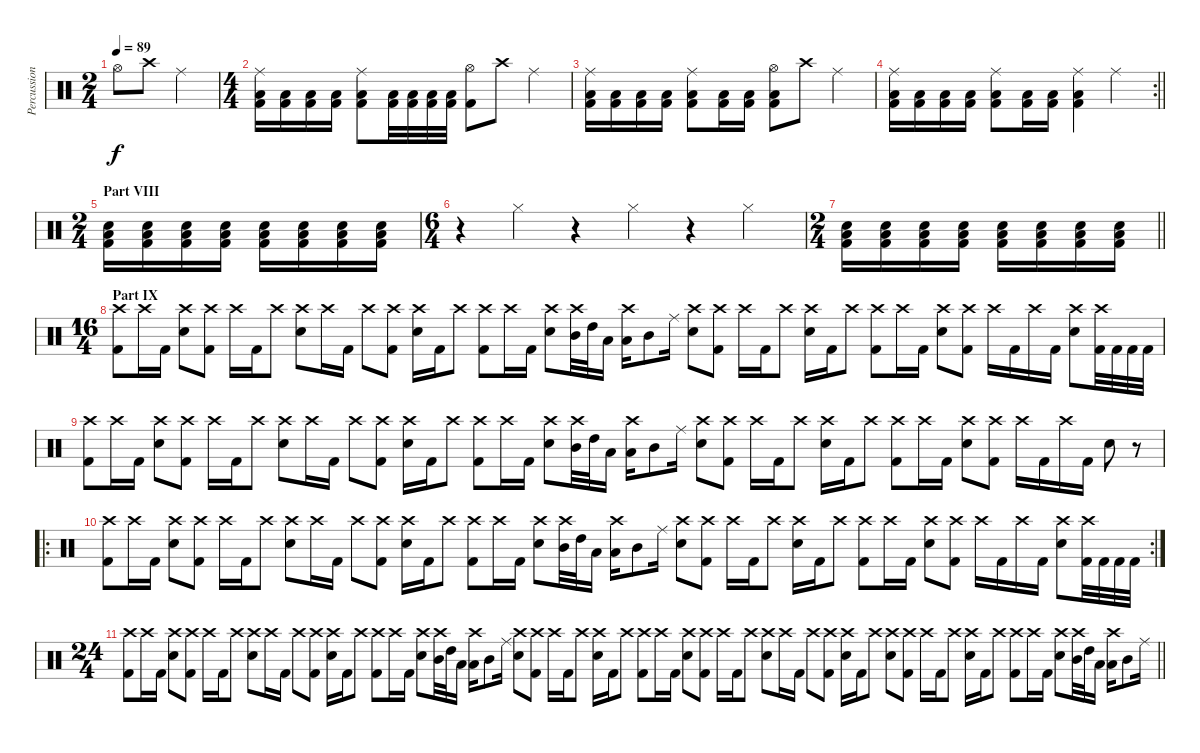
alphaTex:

\track ("Percussions" "Percussion") {instrument percussion}
\staff {score}
\articulation defaults
\ts (2 4)
\tempo 89
\clef neutral
\ks c "Hi-Hat (open)".8{dy f} "Crash high (hit)".8 "Ride (middle)".4
|
\ts (4 4)
("Ride (middle)" "Low Tom (hit)" "Kick (hit) 2").16 ("Low Tom (hit)" "Kick (hit) 2").16 ("Low Tom (hit)" "Kick (hit) 2").16 ("Low Tom (hit)" "Kick (hit) 2").16 ("Ride (middle)" "Low Tom (hit)" "Kick (hit) 2").8 ("Low Tom (hit)" "Kick (hit) 2").32 ("Low Tom (hit)" "Kick (hit) 2").32 ("Low Tom (hit)" "Kick (hit) 2").32 ("Low Tom (hit)" "Kick (hit) 2").32 ("Hi-Hat (open)" "Kick (hit) 2").8 "Crash high (hit)".8 "Ride (middle)".4 |
("Ride (middle)" "Low Tom (hit)" "Kick (hit) 2").16 ("Low Tom (hit)" "Kick (hit) 2").16 ("Low Tom (hit)" "Kick (hit) 2").16 ("Low Tom (hit)" "Kick (hit) 2").16 ("Ride (middle)" "Low Tom (hit)" "Kick (hit) 2").8 ("Low Tom (hit)" "Kick (hit) 2").16 ("Low Tom (hit)" "Kick (hit) 2").16 ("Hi-Hat (open)" "Low Tom (hit)" "Kick (hit) 2").8 "Crash high (hit)".8 "Ride (middle)".4 |
\rc 2
\barLineRight lightlight
("Ride (middle)" "Low Tom (hit)" "Kick (hit) 2").16 ("Low Tom (hit)" "Kick (hit) 2").16 ("Low Tom (hit)" "Kick (hit) 2").16 ("Low Tom (hit)" "Kick (hit) 2").16 ("Ride (middle)" "Low Tom (hit)" "Kick (hit) 2").8 ("Low Tom (hit)" "Kick (hit) 2").16 ("Low Tom (hit)" "Kick (hit) 2").16 ("Ride (middle)" "Low Tom (hit)" "Kick (hit) 2").4 "Ride (middle)".4 |
\ts (2 4)
\section ("" "Part VIII")
("Low Tom (hit)" "Snare (hit) 2" "Kick (hit) 2").16 ("Low Tom (hit)" "Snare (hit) 2" "Kick (hit) 2").16 ("Low Tom (hit)" "Snare (hit) 2" "Kick (hit) 2").16 ("Low Tom (hit)" "Snare (hit) 2" "Kick (hit) 2").16 ("Low Tom (hit)" "Snare (hit) 2" "Kick (hit) 2").16 ("Low Tom (hit)" "Snare (hit) 2" "Kick (hit) 2").16 ("Low Tom (hit)" "Snare (hit) 2" "Kick (hit) 2").16 ("Low Tom (hit)" "Snare (hit) 2" "Kick (hit) 2").16 |
\ts (6 4)
r.4 "Hi-Hat (closed)".4 r.4 "Hi-Hat (closed)".4 r.4 "Hi-Hat (closed)".4 |
\ts (2 4)
\barLineRight lightlight
("Low Tom (hit)" "Snare (hit) 2" "Kick (hit) 2").16 ("Low Tom (hit)" "Snare (hit) 2" "Kick (hit) 2").16 ("Low Tom (hit)" "Snare (hit) 2" "Kick (hit) 2").16 ("Low Tom (hit)" "Snare (hit) 2" "Kick (hit) 2").16 ("Low Tom (hit)" "Snare (hit) 2" "Kick (hit) 2").16 ("Low Tom (hit)" "Snare (hit) 2" "Kick (hit) 2").16 ("Low Tom (hit)" "Snare (hit) 2" "Kick (hit) 2").16 ("Low Tom (hit)" "Snare (hit) 2" "Kick (hit) 2").16 |
\ts (16 4)
\section ("" "Part IX")
("Crash high (hit)" "Kick (hit) 2").8 "Crash high (hit)".16 "Kick (hit) 2".16 ("Crash high (hit)" "Snare (hit) 2").8 ("Crash high (hit)" "Kick (hit) 2").8 "Crash high (hit)".16 "Kick (hit) 2".16 "Crash high (hit)".8 ("Crash high (hit)" "Snare (hit) 2").8 "Crash high (hit)".16 "Kick (hit) 2".16 "Crash high (hit)".8 ("Crash high (hit)" "Kick (hit) 2").8 ("Crash high (hit)" "Snare (hit) 2").16 "Kick (hit) 2".16 "Crash high (hit)".8 ("Crash high (hit)" "Kick (hit) 2").8 "Crash high (hit)".16 "Kick (hit) 2".16 ("Crash high (hit)" "Snare (hit) 2").8 ("Crash high (hit)" "Mid Tom (hit)").32 "High Tom (hit)".32 "Low Tom (hit)".16 ("Crash high (hit)" "Low Tom (hit)").16 "Mid Tom (hit)".8 "Ride (middle)".16 ("Crash high (hit)" "Snare (hit) 2").8 ("Crash high (hit)" "Kick (hit) 2").8 "Crash high (hit)".16 "Kick (hit) 2".16 "Crash high (hit)".8 ("Crash high (hit)" "Snare (hit) 2").16 "Kick (hit) 2".16 "Crash high (hit)".8 ("Crash high (hit)" "Kick (hit) 2").8 "Crash high (hit)".16 "Kick (hit) 2".16 ("Crash high (hit)" "Snare (hit) 2").8 ("Crash high (hit)" "Kick (hit) 2").8 "Crash high (hit)".16 "Kick (hit) 2".16 "Crash high (hit)".16 "Kick (hit) 2".16 ("Crash high (hit)" "Snare (hit) 2").8 ("Crash high (hit)" "Kick (hit) 2").32 "Kick (hit) 2".32 "Kick (hit) 2".32 "Kick (hit) 2".32 |
("Crash high (hit)" "Kick (hit) 2").8 "Crash high (hit)".16 "Kick (hit) 2".16 ("Crash high (hit)" "Snare (hit) 2").8 ("Crash high (hit)" "Kick (hit) 2").8 "Crash high (hit)".16 "Kick (hit) 2".16 "Crash high (hit)".8 ("Crash high (hit)" "Snare (hit) 2").8 "Crash high (hit)".16 "Kick (hit) 2".16 "Crash high (hit)".8 ("Crash high (hit)" "Kick (hit) 2").8 ("Crash high (hit)" "Snare (hit) 2").16 "Kick (hit) 2".16 "Crash high (hit)".8 ("Crash high (hit)" "Kick (hit) 2").8 "Crash high (hit)".16 "Kick (hit) 2".16 ("Crash high (hit)" "Snare (hit) 2").8 ("Crash high (hit)" "Mid Tom (hit)").32 "High Tom (hit)".32 "Low Tom (hit)".16 ("Crash high (hit)" "Low Tom (hit)").16 "Mid Tom (hit)".8 "Ride (middle)".16 ("Crash high (hit)" "Snare (hit) 2").8 ("Crash high (hit)" "Kick (hit) 2").8 "Crash high (hit)".16 "Kick (hit) 2".16 "Crash high (hit)".8 ("Crash high (hit)" "Snare (hit) 2").16 "Kick (hit) 2".16 "Crash high (hit)".8 ("Crash high (hit)" "Kick (hit) 2").8 "Crash high (hit)".16 "Kick (hit) 2".16 ("Crash high (hit)" "Snare (hit) 2").8 ("Crash high (hit)" "Kick (hit) 2").8 "Crash high (hit)".16 "Kick (hit) 2".16 "Crash high (hit)".16 "Kick (hit) 2".16 "Snare (hit) 2".8 r.8 |
\ro
\rc 2
("Crash high (hit)" "Kick (hit) 2").8 "Crash high (hit)".16 "Kick (hit) 2".16 ("Crash high (hit)" "Snare (hit) 2").8 ("Crash high (hit)" "Kick (hit) 2").8 "Crash high (hit)".16 "Kick (hit) 2".16 "Crash high (hit)".8 ("Crash high (hit)" "Snare (hit) 2").8 "Crash high (hit)".16 "Kick (hit) 2".16 "Crash high (hit)".8 ("Crash high (hit)" "Kick (hit) 2").8 ("Crash high (hit)" "Snare (hit) 2").16 "Kick (hit) 2".16 "Crash high (hit)".8 ("Crash high (hit)" "Kick (hit) 2").8 "Crash high (hit)".16 "Kick (hit) 2".16 ("Crash high (hit)" "Snare (hit) 2").8 ("Crash high (hit)" "Mid Tom (hit)").32 "High Tom (hit)".32 "Low Tom (hit)".16 ("Crash high (hit)" "Low Tom (hit)").16 "Mid Tom (hit)".8 "Ride (middle)".16 ("Crash high (hit)" "Snare (hit) 2").8 ("Crash high (hit)" "Kick (hit) 2").8 "Crash high (hit)".16 "Kick (hit) 2".16 "Crash high (hit)".8 ("Crash high (hit)" "Snare (hit) 2").16 "Kick (hit) 2".16 "Crash high (hit)".8 ("Crash high (hit)" "Kick (hit) 2").8 "Crash high (hit)".16 "Kick (hit) 2".16 ("Crash high (hit)" "Snare (hit) 2").8 ("Crash high (hit)" "Kick (hit) 2").8 "Crash high (hit)".16 "Kick (hit) 2".16 "Crash high (hit)".16 "Kick (hit) 2".16 ("Crash high (hit)" "Snare (hit) 2").8 ("Crash high (hit)" "Kick (hit) 2").32 "Kick (hit) 2".32 "Kick (hit) 2".32 "Kick (hit) 2".32 |
\ts (24 4)
\barLineRight lightlight
("Crash high (hit)" "Kick (hit) 2").8 "Crash high (hit)".16 "Kick (hit) 2".16 ("Crash high (hit)" "Snare (hit) 2").8 ("Crash high (hit)" "Kick (hit) 2").8 "Crash high (hit)".16 "Kick (hit) 2".16 "Crash high (hit)".8 ("Crash high (hit)" "Snare (hit) 2").8 "Crash high (hit)".16 "Kick (hit) 2".16 "Crash high (hit)".8 ("Crash high (hit)" "Kick (hit) 2").8 ("Crash high (hit)" "Snare (hit) 2").16 "Kick (hit) 2".16 "Crash high (hit)".8 ("Crash high (hit)" "Kick (hit) 2").8 "Crash high (hit)".16 "Kick (hit) 2".16 ("Crash high (hit)" "Snare (hit) 2").8 ("Crash high (hit)" "Mid Tom (hit)").32 "High Tom (hit)".32 "Low Tom (hit)".16 ("Crash high (hit)" "Low Tom (hit)").16 "Mid Tom (hit)".8 "Ride (middle)".16 ("Crash high (hit)" "Snare (hit) 2").8 ("Crash high (hit)" "Kick (hit) 2").8 "Crash high (hit)".16 "Kick (hit) 2".16 "Crash high (hit)".8 ("Crash high (hit)" "Snare (hit) 2").16 "Kick (hit) 2".16 "Crash high (hit)".8 ("Crash high (hit)" "Kick (hit) 2").8 "Crash high (hit)".16 "Kick (hit) 2".16 ("Crash high (hit)" "Snare (hit) 2").8 ("Crash high (hit)" "Kick (hit) 2").8 "Crash high (hit)".16 "Kick (hit) 2".16 "Crash high (hit)".8 ("Crash high (hit)" "Snare (hit) 2").8 "Crash high (hit)".16 "Kick (hit) 2".16 "Crash high (hit)".8 ("Crash high (hit)" "Kick (hit) 2").8 ("Crash high (hit)" "Snare (hit) 2").16 "Kick (hit) 2".16 "Crash high (hit)".8 ("Crash high (hit)" "Snare (hit) 2").8 ("Crash high (hit)" "Kick (hit) 2").8 "Crash high (hit)".16 "Kick (hit) 2".16 "Crash high (hit)".8 ("Crash high (hit)" "Snare (hit) 2").16 "Kick (hit) 2".16 "Crash high (hit)".8 ("Crash high (hit)" "Kick (hit) 2").8 "Crash high (hit)".16 "Kick (hit) 2".16 ("Crash high (hit)" "Snare (hit) 2").8 ("Crash high (hit)" "Mid Tom (hit)").32 "High Tom (hit)".32 "Low Tom (hit)".16 ("Crash high (hit)" "Low Tom (hit)").16 "Mid Tom (hit)".8 "Ride (middle)".16
